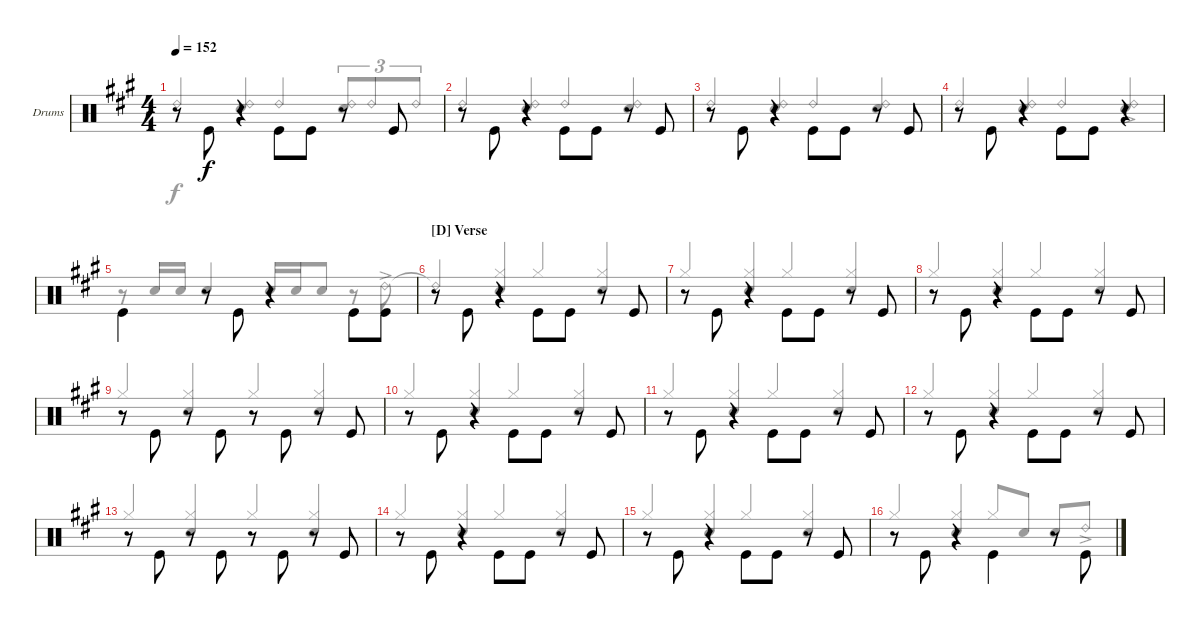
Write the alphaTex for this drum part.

\defaultSystemsLayout 4
\bracketExtendMode groupsimilarinstruments
\firstSystemTrackNameOrientation horizontal
\otherSystemsTrackNameOrientation horizontal
\track ("Drumkit" "Drums") {instrument percussion}
\staff {score}
\articulation defaults
\voice
\ts (4 4)
\tempo 152
\clef neutral
\scale
1.05801
\ks a
r.8{dy f beam invert} "Kick (hit)".8{beam invert} r.4{beam invert} "Kick (hit)".8{beam invert} "Kick (hit)".8 r.8 "Kick (hit)".8 |
\scale
0.941992 r.8{beam invert} "Kick (hit)".8{beam invert} r.4{beam invert} "Kick (hit)".8{beam invert} "Kick (hit)".8 r.8 "Kick (hit)".8 |
\scale
1.05801 r.8{beam invert} "Kick (hit)".8{beam invert} r.4{beam invert} "Kick (hit)".8{beam invert} "Kick (hit)".8 r.8 "Kick (hit)".8 |
\scale
0.941992 r.8{beam invert} "Kick (hit)".8{beam invert} r.4{beam invert} "Kick (hit)".8{beam invert} "Kick (hit)".8 r.4 |
\scale
1.05801 "Kick (hit)".4{beam invert} r.8{beam invert} "Kick (hit)".8{beam invert} r.4{beam invert} "Kick (hit)".8{beam invert} "Kick (hit)".8 |
\section ("D" "Verse")
\scale
0.941992 r.8 "Kick (hit)".8{beam invert} r.4 "Kick (hit)".8{beam invert} "Kick (hit)".8 r.8 "Kick (hit)".8 |
\scale
1.05801 r.8 "Kick (hit)".8{beam invert} r.4 "Kick (hit)".8{beam invert} "Kick (hit)".8 r.8 "Kick (hit)".8 |
\scale
0.941992 r.8 "Kick (hit)".8{beam invert} r.4 "Kick (hit)".8{beam invert} "Kick (hit)".8 r.8 "Kick (hit)".8 |
\scale
1.05801 r.8 "Kick (hit)".8{beam invert} r.8 "Kick (hit)".8 r.8{beam invert} "Kick (hit)".8{beam invert} r.8 "Kick (hit)".8 |
\scale
0.941992 r.8 "Kick (hit)".8{beam invert} r.4 "Kick (hit)".8{beam invert} "Kick (hit)".8 r.8 "Kick (hit)".8 |
\scale
1.05801 r.8 "Kick (hit)".8{beam invert} r.4 "Kick (hit)".8{beam invert} "Kick (hit)".8 r.8 "Kick (hit)".8 |
\scale
0.941992 r.8 "Kick (hit)".8{beam invert} r.4 "Kick (hit)".8{beam invert} "Kick (hit)".8 r.8 "Kick (hit)".8 |
\scale
1.05801 r.8 "Kick (hit)".8{beam invert} r.8 "Kick (hit)".8 r.8{beam invert} "Kick (hit)".8{beam invert} r.8 "Kick (hit)".8 |
\scale
0.941992 r.8 "Kick (hit)".8{beam invert} r.4 "Kick (hit)".8{beam invert} "Kick (hit)".8 r.8 "Kick (hit)".8 |
\scale
1.05801 r.8 "Kick (hit)".8{beam invert} r.4 "Kick (hit)".8{beam invert} "Kick (hit)".8 r.8 "Kick (hit)".8 |
\scale
0.941992 r.8 "Kick (hit)".8{beam invert} r.4 "Kick (hit)".4{beam invert} r.8 "Kick (hit)".8{beam invert}
\voice
\clef neutral
\ottava regular
\simile none
\scale
1.05801
\ks a "Ride (bell) 2".4{dy f beam invert}
("Snare (hit) 2" "Ride (bell) 2").4{beam invert} "Ride (bell) 2".4{beam invert} ("Snare (hit) 2" "Ride (bell) 2").8{tu (3 2) beam invert} "Ride (bell) 2".8{tu (3 2) beam invert} "Ride (bell) 2".8{tu (3 2) beam invert} |
\scale
0.941992 "Ride (bell) 2".4{beam invert} ("Snare (hit) 2" "Ride (bell) 2").4{beam invert} "Ride (bell) 2".4{beam invert} ("Ride (bell) 2" "Snare (hit) 2").4{beam invert} |
\scale
1.05801 "Ride (bell) 2".4{beam invert} ("Snare (hit) 2" "Ride (bell) 2").4{beam invert} "Ride (bell) 2".4{beam invert} ("Ride (bell) 2" "Snare (hit) 2").4{beam invert} |
\scale
0.941992 "Ride (bell) 2".4{beam invert} ("Snare (hit) 2" "Ride (bell) 2").4{beam invert} "Ride (bell) 2".4{beam invert} ("Ride (bell) 2"{ac} "Snare (hit) 2").4{beam invert} |
\scale
1.05801 r.8{beam invert} "Snare (hit) 2".16{beam invert} "Snare (hit) 2".16 "Snare (hit) 2".4{beam invert} "Snare (hit) 2".16{beam invert} "Snare (hit) 2".16 "Snare (hit) 2".8 r.8 "Ride (bell) 2"{ac}.8 |
\scale
0.941992 "Ride (bell) 2"{t}.4{beam invert} ("Hi-Hat (closed)" "Snare (hit) 2").4{beam invert} "Hi-Hat (closed)".4{beam invert} ("Hi-Hat (closed)" "Snare (hit) 2").4{beam invert} |
\scale
1.05801 "Hi-Hat (closed)".4{beam invert} ("Hi-Hat (closed)" "Snare (hit) 2").4{beam invert} "Hi-Hat (closed)".4{beam invert} ("Hi-Hat (closed)" "Snare (hit) 2").4{beam invert} |
\scale
0.941992 "Hi-Hat (closed)".4{beam invert} ("Hi-Hat (closed)" "Snare (hit) 2").4{beam invert} "Hi-Hat (closed)".4{beam invert} ("Hi-Hat (closed)" "Snare (hit) 2").4{beam invert} |
\scale
1.05801 "Hi-Hat (closed)".4{beam invert} ("Hi-Hat (closed)" "Snare (hit) 2").4{beam invert} "Hi-Hat (closed)".4{beam invert} ("Hi-Hat (closed)" "Snare (hit) 2").4{beam invert} |
\scale
0.941992 "Hi-Hat (closed)".4{beam invert} ("Hi-Hat (closed)" "Snare (hit) 2").4{beam invert} "Hi-Hat (closed)".4{beam invert} ("Hi-Hat (closed)" "Snare (hit) 2").4{beam invert} |
\scale
1.05801 "Hi-Hat (closed)".4{beam invert} ("Hi-Hat (closed)" "Snare (hit) 2").4{beam invert} "Hi-Hat (closed)".4{beam invert} ("Hi-Hat (closed)" "Snare (hit) 2").4{beam invert} |
\scale
0.941992 "Hi-Hat (closed)".4{beam invert} ("Hi-Hat (closed)" "Snare (hit) 2").4{beam invert} "Hi-Hat (closed)".4{beam invert} ("Hi-Hat (closed)" "Snare (hit) 2").4{beam invert} |
\scale
1.05801 "Hi-Hat (closed)".4{beam invert} ("Hi-Hat (closed)" "Snare (hit) 2").4{beam invert} "Hi-Hat (closed)".4{beam invert} ("Hi-Hat (closed)" "Snare (hit) 2").4{beam invert} |
\scale
0.941992 "Hi-Hat (closed)".4{beam invert} ("Hi-Hat (closed)" "Snare (hit) 2").4{beam invert} "Hi-Hat (closed)".4{beam invert} ("Hi-Hat (closed)" "Snare (hit) 2").4{beam invert} |
\scale
1.05801 "Hi-Hat (closed)".4{beam invert} ("Hi-Hat (closed)" "Snare (hit) 2").4{beam invert} "Hi-Hat (closed)".4{beam invert} ("Hi-Hat (closed)" "Snare (hit) 2").4{beam invert} |
\scale
0.941992 "Hi-Hat (closed)".4{beam invert} ("Hi-Hat (closed)" "Snare (hit) 2").4{beam invert} "Hi-Hat (closed)".8{beam invert} "Snare (hit) 2".8{beam invert} "Snare (hit) 2".8{beam invert} "Ride (bell) 2"{ac}.8
